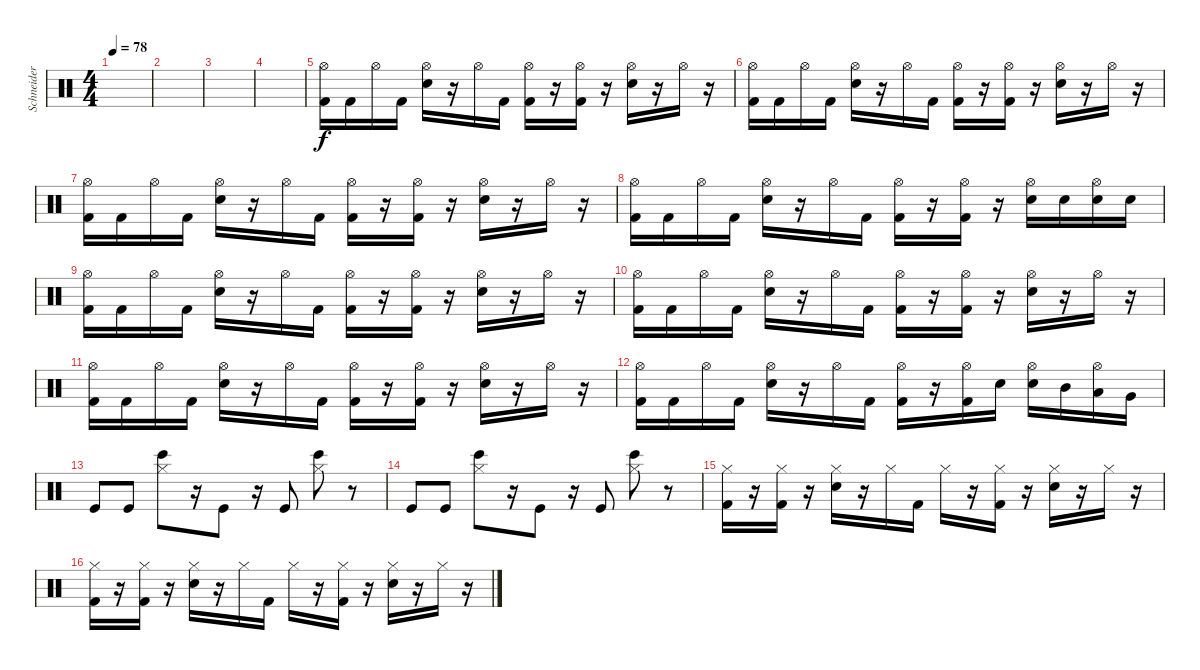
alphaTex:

\track ("Schneider - Drums" "Schneider ") {instrument percussion}
\staff {score}
\articulation defaults
\ts (4 4)
\tempo 78
\clef neutral
\ks c
|
|
|
|
("Hi-Hat (open)" "Kick (hit) 2").16 "Kick (hit) 2".16 "Hi-Hat (open)".16 "Kick (hit) 2".16 ("Hi-Hat (open)" "Snare (hit) 2").16 r.16 "Hi-Hat (open)".16 "Kick (hit) 2".16 ("Hi-Hat (open)" "Kick (hit) 2").16 r.16 ("Hi-Hat (open)" "Kick (hit) 2").16 r.16 ("Hi-Hat (open)" "Snare (hit) 2").16 r.16 "Hi-Hat (open)".16 r.16 |
("Hi-Hat (open)" "Kick (hit) 2").16 "Kick (hit) 2".16 "Hi-Hat (open)".16 "Kick (hit) 2".16 ("Hi-Hat (open)" "Snare (hit) 2").16 r.16 "Hi-Hat (open)".16 "Kick (hit) 2".16 ("Hi-Hat (open)" "Kick (hit) 2").16 r.16 ("Hi-Hat (open)" "Kick (hit) 2").16 r.16 ("Hi-Hat (open)" "Snare (hit) 2").16 r.16 "Hi-Hat (open)".16 r.16 |
("Hi-Hat (open)" "Kick (hit) 2").16 "Kick (hit) 2".16 "Hi-Hat (open)".16 "Kick (hit) 2".16 ("Hi-Hat (open)" "Snare (hit) 2").16 r.16 "Hi-Hat (open)".16 "Kick (hit) 2".16 ("Hi-Hat (open)" "Kick (hit) 2").16 r.16 ("Hi-Hat (open)" "Kick (hit) 2").16 r.16 ("Hi-Hat (open)" "Snare (hit) 2").16 r.16 "Hi-Hat (open)".16 r.16 |
("Hi-Hat (open)" "Kick (hit) 2").16 "Kick (hit) 2".16 "Hi-Hat (open)".16 "Kick (hit) 2".16 ("Hi-Hat (open)" "Snare (hit) 2").16 r.16 "Hi-Hat (open)".16 "Kick (hit) 2".16 ("Hi-Hat (open)" "Kick (hit) 2").16 r.16 ("Hi-Hat (open)" "Kick (hit) 2").16 r.16 ("Hi-Hat (open)" "Snare (hit) 2").16 "Snare (hit) 2".16 ("Hi-Hat (open)" "Snare (hit) 2").16 "Snare (hit) 2".16 |
("Hi-Hat (open)" "Kick (hit) 2").16 "Kick (hit) 2".16 "Hi-Hat (open)".16 "Kick (hit) 2".16 ("Hi-Hat (open)" "Snare (hit) 2").16 r.16 "Hi-Hat (open)".16 "Kick (hit) 2".16 ("Hi-Hat (open)" "Kick (hit) 2").16 r.16 ("Hi-Hat (open)" "Kick (hit) 2").16 r.16 ("Hi-Hat (open)" "Snare (hit) 2").16 r.16 "Hi-Hat (open)".16 r.16 |
("Hi-Hat (open)" "Kick (hit) 2").16 "Kick (hit) 2".16 "Hi-Hat (open)".16 "Kick (hit) 2".16 ("Hi-Hat (open)" "Snare (hit) 2").16 r.16 "Hi-Hat (open)".16 "Kick (hit) 2".16 ("Hi-Hat (open)" "Kick (hit) 2").16 r.16 ("Hi-Hat (open)" "Kick (hit) 2").16 r.16 ("Hi-Hat (open)" "Snare (hit) 2").16 r.16 "Hi-Hat (open)".16 r.16 |
("Hi-Hat (open)" "Kick (hit) 2").16 "Kick (hit) 2".16 "Hi-Hat (open)".16 "Kick (hit) 2".16 ("Hi-Hat (open)" "Snare (hit) 2").16 r.16 "Hi-Hat (open)".16 "Kick (hit) 2".16 ("Hi-Hat (open)" "Kick (hit) 2").16 r.16 ("Hi-Hat (open)" "Kick (hit) 2").16 r.16 ("Hi-Hat (open)" "Snare (hit) 2").16 r.16 "Hi-Hat (open)".16 r.16 |
("Hi-Hat (open)" "Kick (hit) 2").16 "Kick (hit) 2".16 "Hi-Hat (open)".16 "Kick (hit) 2".16 ("Hi-Hat (open)" "Snare (hit) 2").16 r.16 "Hi-Hat (open)".16 "Kick (hit) 2".16 ("Hi-Hat (open)" "Kick (hit) 2").16 r.16 ("Hi-Hat (open)" "Kick (hit) 2").16 "Snare (hit) 2".16 ("Hi-Hat (open)" "Snare (hit) 2").16 "Mid Tom (hit)".16 ("Hi-Hat (open)" "Low Tom (hit)").16 "Very Low Tom (hit)".16 |
"Kick (hit)".8 "Kick (hit)".8 ("Bongo High (hit)" "Hi-Hat (closed)").8 r.16 "Kick (hit)".8 r.16 "Kick (hit)".8 ("Bongo High (hit)" "Hi-Hat (closed)").8 r.8 |
"Kick (hit)".8 "Kick (hit)".8 ("Bongo High (hit)" "Hi-Hat (closed)").8 r.16 "Kick (hit)".8 r.16 "Kick (hit)".8 ("Bongo High (hit)" "Hi-Hat (closed)").8 r.8 |
("Hi-Hat (closed)" "Kick (hit) 2").16 r.16 ("Hi-Hat (closed)" "Kick (hit) 2").16 r.16 ("Hi-Hat (closed)" "Snare (hit) 2").16 r.16 "Hi-Hat (closed)".16 "Kick (hit) 2".16 "Hi-Hat (closed)".16 r.16 ("Hi-Hat (closed)" "Kick (hit) 2").16 r.16 ("Hi-Hat (closed)" "Snare (hit) 2").16 r.16 "Hi-Hat (closed)".16 r.16 |
("Hi-Hat (closed)" "Kick (hit) 2").16 r.16 ("Hi-Hat (closed)" "Kick (hit) 2").16 r.16 ("Hi-Hat (closed)" "Snare (hit) 2").16 r.16 "Hi-Hat (closed)".16 "Kick (hit) 2".16 "Hi-Hat (closed)".16 r.16 ("Hi-Hat (closed)" "Kick (hit) 2").16 r.16 ("Hi-Hat (closed)" "Snare (hit) 2").16 r.16 "Hi-Hat (closed)".16 r.16
